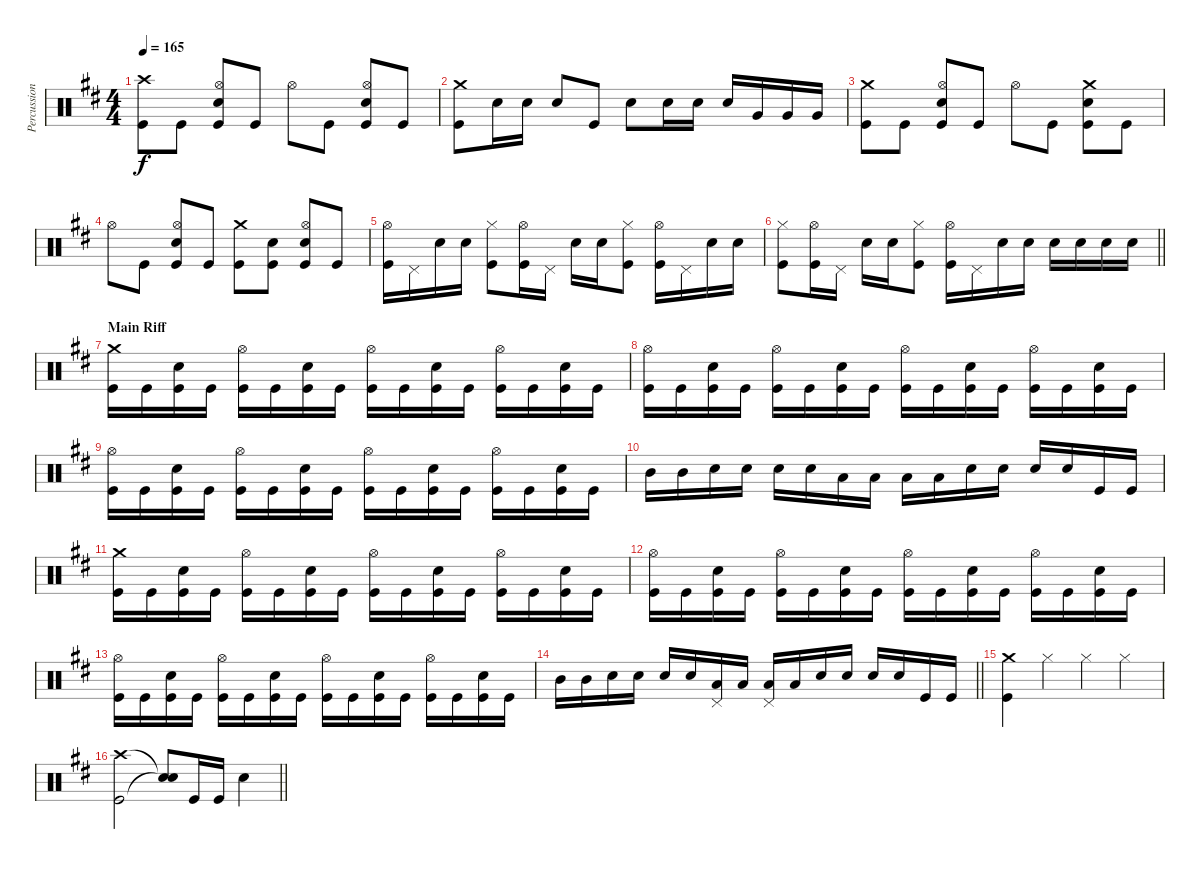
\track ("Percussion" "Percussion") {instrument percussion}
\staff {score}
\articulation defaults
\ts (4 4)
\tempo 165
\clef neutral
\ks d
("Crash high (hit)" "Kick (hit)").8{dy f} "Kick (hit)".8 ("Hi-Hat (open)" "Electric Snare (hit)" "Kick (hit)").8 "Kick (hit)".8 "Hi-Hat (open)".8 "Kick (hit)".8 ("Hi-Hat (open)" "Electric Snare (hit)" "Kick (hit)").8 "Kick (hit)".8 |
("Crash medium (hit)" "Kick (hit)").8 "Electric Snare (hit)".16 "Electric Snare (hit)".16 "Electric Snare (hit)".8 "Kick (hit)".8 "Electric Snare (hit)".8 "Electric Snare (hit)".16 "Electric Snare (hit)".16 "Electric Snare (hit)".16 "Very Low Tom (hit)".16 "Very Low Tom (hit)".16 "Very Low Tom (hit)".16 |
("Crash medium (hit)" "Kick (hit)").8 "Kick (hit)".8 ("Hi-Hat (open)" "Electric Snare (hit)" "Kick (hit)").8 "Kick (hit)".8 "Hi-Hat (open)".8 "Kick (hit)".8 ("Crash medium (hit)" "Electric Snare (hit)" "Kick (hit)").8 "Kick (hit)".8 |
"Hi-Hat (open)".8 "Kick (hit)".8 ("Hi-Hat (open)" "Electric Snare (hit)" "Kick (hit)").8 "Kick (hit)".8 ("Crash medium (hit)" "Kick (hit)").8 ("Electric Snare (hit)" "Kick (hit)").8 ("Hi-Hat (open)" "Electric Snare (hit)" "Kick (hit)").8 "Kick (hit)".8 |
("Hi-Hat (open)" "Kick (hit)").16 "Pedal Hi-Hat (hit)".16 "Electric Snare (hit)".16 "Electric Snare (hit)".16 ("Hi-Hat (closed)" "Kick (hit)").8 ("Hi-Hat (open)" "Kick (hit)").16 "Pedal Hi-Hat (hit)".16 "Electric Snare (hit)".16 "Electric Snare (hit)".16 ("Hi-Hat (closed)" "Kick (hit)").8 ("Hi-Hat (open)" "Kick (hit)").16 "Pedal Hi-Hat (hit)".16 "Electric Snare (hit)".16 "Electric Snare (hit)".16 |
\barLineRight lightlight
("Hi-Hat (closed)" "Kick (hit)").8 ("Hi-Hat (open)" "Kick (hit)").16 "Pedal Hi-Hat (hit)".16 "Electric Snare (hit)".16 "Electric Snare (hit)".16 ("Hi-Hat (closed)" "Kick (hit)").8 ("Hi-Hat (open)" "Kick (hit)").16 "Pedal Hi-Hat (hit)".16 "Electric Snare (hit)".16 "Electric Snare (hit)".16 "Electric Snare (hit)".16 "Electric Snare (hit)".16 "Electric Snare (hit)".16 "Electric Snare (hit)".16 |
\section ("" "Main Riff")
("Crash medium (hit)" "Kick (hit)").16 "Kick (hit)".16 ("Electric Snare (hit)" "Kick (hit)").16 "Kick (hit)".16 ("Hi-Hat (open)" "Kick (hit)").16 "Kick (hit)".16 ("Electric Snare (hit)" "Kick (hit)").16 "Kick (hit)".16 ("Hi-Hat (open)" "Kick (hit)").16 "Kick (hit)".16 ("Electric Snare (hit)" "Kick (hit)").16 "Kick (hit)".16 ("Hi-Hat (open)" "Kick (hit)").16 "Kick (hit)".16 ("Electric Snare (hit)" "Kick (hit)").16 "Kick (hit)".16 |
("Hi-Hat (open)" "Kick (hit)").16 "Kick (hit)".16 ("Electric Snare (hit)" "Kick (hit)").16 "Kick (hit)".16 ("Hi-Hat (open)" "Kick (hit)").16 "Kick (hit)".16 ("Electric Snare (hit)" "Kick (hit)").16 "Kick (hit)".16 ("Hi-Hat (open)" "Kick (hit)").16 "Kick (hit)".16 ("Electric Snare (hit)" "Kick (hit)").16 "Kick (hit)".16 ("Hi-Hat (open)" "Kick (hit)").16 "Kick (hit)".16 ("Electric Snare (hit)" "Kick (hit)").16 "Kick (hit)".16 |
("Hi-Hat (open)" "Kick (hit)").16 "Kick (hit)".16 ("Electric Snare (hit)" "Kick (hit)").16 "Kick (hit)".16 ("Hi-Hat (open)" "Kick (hit)").16 "Kick (hit)".16 ("Electric Snare (hit)" "Kick (hit)").16 "Kick (hit)".16 ("Hi-Hat (open)" "Kick (hit)").16 "Kick (hit)".16 ("Electric Snare (hit)" "Kick (hit)").16 "Kick (hit)".16 ("Hi-Hat (open)" "Kick (hit)").16 "Kick (hit)".16 ("Electric Snare (hit)" "Kick (hit)").16 "Kick (hit)".16 |
"Mid Tom (hit)".16 "Mid Tom (hit)".16 "Electric Snare (hit)".16 "Electric Snare (hit)".16 "Electric Snare (hit)".16 "Electric Snare (hit)".16 "Low Tom (hit)".16 "Low Tom (hit)".16 "Low Tom (hit)".16 "Low Tom (hit)".16 "Electric Snare (hit)".16 "Electric Snare (hit)".16 "Electric Snare (hit)".16 "Electric Snare (hit)".16 "Kick (hit)".16 "Kick (hit)".16 |
("Crash medium (hit)" "Kick (hit)").16 "Kick (hit)".16 ("Electric Snare (hit)" "Kick (hit)").16 "Kick (hit)".16 ("Hi-Hat (open)" "Kick (hit)").16 "Kick (hit)".16 ("Electric Snare (hit)" "Kick (hit)").16 "Kick (hit)".16 ("Hi-Hat (open)" "Kick (hit)").16 "Kick (hit)".16 ("Electric Snare (hit)" "Kick (hit)").16 "Kick (hit)".16 ("Hi-Hat (open)" "Kick (hit)").16 "Kick (hit)".16 ("Electric Snare (hit)" "Kick (hit)").16 "Kick (hit)".16 |
("Hi-Hat (open)" "Kick (hit)").16 "Kick (hit)".16 ("Electric Snare (hit)" "Kick (hit)").16 "Kick (hit)".16 ("Hi-Hat (open)" "Kick (hit)").16 "Kick (hit)".16 ("Electric Snare (hit)" "Kick (hit)").16 "Kick (hit)".16 ("Hi-Hat (open)" "Kick (hit)").16 "Kick (hit)".16 ("Electric Snare (hit)" "Kick (hit)").16 "Kick (hit)".16 ("Hi-Hat (open)" "Kick (hit)").16 "Kick (hit)".16 ("Electric Snare (hit)" "Kick (hit)").16 "Kick (hit)".16 |
("Hi-Hat (open)" "Kick (hit)").16 "Kick (hit)".16 ("Electric Snare (hit)" "Kick (hit)").16 "Kick (hit)".16 ("Hi-Hat (open)" "Kick (hit)").16 "Kick (hit)".16 ("Electric Snare (hit)" "Kick (hit)").16 "Kick (hit)".16 ("Hi-Hat (open)" "Kick (hit)").16 "Kick (hit)".16 ("Electric Snare (hit)" "Kick (hit)").16 "Kick (hit)".16 ("Hi-Hat (open)" "Kick (hit)").16 "Kick (hit)".16 ("Electric Snare (hit)" "Kick (hit)").16 "Kick (hit)".16 |
\barLineRight lightlight "Mid Tom (hit)".16 "Mid Tom (hit)".16 "Electric Snare (hit)".16 "Electric Snare (hit)".16 "Electric Snare (hit)".16 "Electric Snare (hit)".16
("Pedal Hi-Hat (hit)" "Low Tom (hit)").16 "Low Tom (hit)".16 ("Pedal Hi-Hat (hit)" "Low Tom (hit)").16 "Low Tom (hit)".16 "Electric Snare (hit)".16 "Electric Snare (hit)".16 "Electric Snare (hit)".16 "Electric Snare (hit)".16 "Kick (hit)".16 "Kick (hit)".16 |
\section ("" "")
("Crash medium (hit)" "Kick (hit)").4 "Hi-Hat (closed)".4 "Hi-Hat (closed)".4 "Hi-Hat (closed)".4 |
\barLineRight lightlight
("Crash high (hit)" "Kick (hit)").2 ("Snare (hit)"{t} "Snare (hit)"{t}).8 "Kick (hit)".16 "Kick (hit)".16 "Electric Snare (hit)".4
